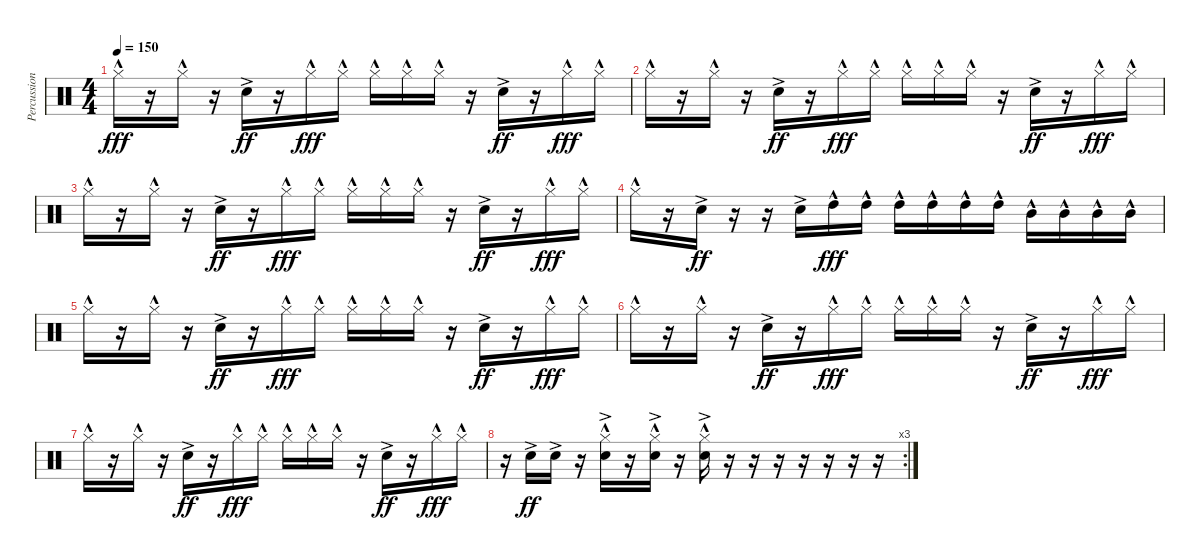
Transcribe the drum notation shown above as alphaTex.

\track ("Percussion" "Percussion") {instrument percussion}
\staff {score}
\articulation defaults
\ts (4 4)
\tempo 150
\clef neutral
\ks c "Hi-Hat (closed)"{hac}.16{dy fff}
r.16 "Hi-Hat (closed)"{hac}.16 r.16 "Snare (hit) 2"{ac}.16{dy ff} r.16 "Hi-Hat (closed)"{hac}.16{dy fff} "Hi-Hat (closed)"{hac}.16 "Hi-Hat (closed)"{hac}.16 "Hi-Hat (closed)"{hac}.16 "Hi-Hat (closed)"{hac}.16 r.16 "Snare (hit) 2"{ac}.16{dy ff} r.16 "Hi-Hat (closed)"{hac}.16{dy fff} "Hi-Hat (closed)"{hac}.16 |
"Hi-Hat (closed)"{hac}.16 r.16 "Hi-Hat (closed)"{hac}.16 r.16 "Snare (hit) 2"{ac}.16{dy ff} r.16 "Hi-Hat (closed)"{hac}.16{dy fff} "Hi-Hat (closed)"{hac}.16 "Hi-Hat (closed)"{hac}.16 "Hi-Hat (closed)"{hac}.16 "Hi-Hat (closed)"{hac}.16 r.16 "Snare (hit) 2"{ac}.16{dy ff} r.16 "Hi-Hat (closed)"{hac}.16{dy fff} "Hi-Hat (closed)"{hac}.16 |
"Hi-Hat (closed)"{hac}.16 r.16 "Hi-Hat (closed)"{hac}.16 r.16 "Snare (hit) 2"{ac}.16{dy ff} r.16 "Hi-Hat (closed)"{hac}.16{dy fff} "Hi-Hat (closed)"{hac}.16 "Hi-Hat (closed)"{hac}.16 "Hi-Hat (closed)"{hac}.16 "Hi-Hat (closed)"{hac}.16 r.16 "Snare (hit) 2"{ac}.16{dy ff} r.16 "Hi-Hat (closed)"{hac}.16{dy fff} "Hi-Hat (closed)"{hac}.16 |
"Hi-Hat (closed)"{hac}.16 r.16 "Snare (hit) 2"{ac}.16{dy ff} r.16 r.16 "Snare (hit) 2"{ac}.16 "High Tom (hit)"{hac}.16{dy fff} "High Tom (hit)"{hac}.16 "High Tom (hit)"{hac}.16 "High Tom (hit)"{hac}.16 "High Tom (hit)"{hac}.16 "High Tom (hit)"{hac}.16 "Mid Tom (hit)"{hac}.16 "Mid Tom (hit)"{hac}.16 "Mid Tom (hit)"{hac}.16 "Mid Tom (hit)"{hac}.16 |
"Hi-Hat (closed)"{hac}.16 r.16 "Hi-Hat (closed)"{hac}.16 r.16 "Snare (hit) 2"{ac}.16{dy ff} r.16 "Hi-Hat (closed)"{hac}.16{dy fff} "Hi-Hat (closed)"{hac}.16 "Hi-Hat (closed)"{hac}.16 "Hi-Hat (closed)"{hac}.16 "Hi-Hat (closed)"{hac}.16 r.16 "Snare (hit) 2"{ac}.16{dy ff} r.16 "Hi-Hat (closed)"{hac}.16{dy fff} "Hi-Hat (closed)"{hac}.16 |
"Hi-Hat (closed)"{hac}.16 r.16 "Hi-Hat (closed)"{hac}.16 r.16 "Snare (hit) 2"{ac}.16{dy ff} r.16 "Hi-Hat (closed)"{hac}.16{dy fff} "Hi-Hat (closed)"{hac}.16 "Hi-Hat (closed)"{hac}.16 "Hi-Hat (closed)"{hac}.16 "Hi-Hat (closed)"{hac}.16 r.16 "Snare (hit) 2"{ac}.16{dy ff} r.16 "Hi-Hat (closed)"{hac}.16{dy fff} "Hi-Hat (closed)"{hac}.16 |
"Hi-Hat (closed)"{hac}.16 r.16 "Hi-Hat (closed)"{hac}.16 r.16 "Snare (hit) 2"{ac}.16{dy ff} r.16 "Hi-Hat (closed)"{hac}.16{dy fff} "Hi-Hat (closed)"{hac}.16 "Hi-Hat (closed)"{hac}.16 "Hi-Hat (closed)"{hac}.16 "Hi-Hat (closed)"{hac}.16 r.16 "Snare (hit) 2"{ac}.16{dy ff} r.16 "Hi-Hat (closed)"{hac}.16{dy fff} "Hi-Hat (closed)"{hac}.16 |
\rc 3
r.16 "Snare (hit) 2"{ac}.16{dy ff} "Snare (hit) 2"{ac}.16 r.16 ("Hi-Hat (closed)"{hac} "Snare (hit) 2"{ac}).16 r.16 ("Hi-Hat (closed)"{hac} "Snare (hit) 2"{ac}).16 r.16 ("Hi-Hat (closed)"{hac} "Snare (hit) 2"{ac}).16 r.16 r.16 r.16 r.16 r.16 r.16 r.16
